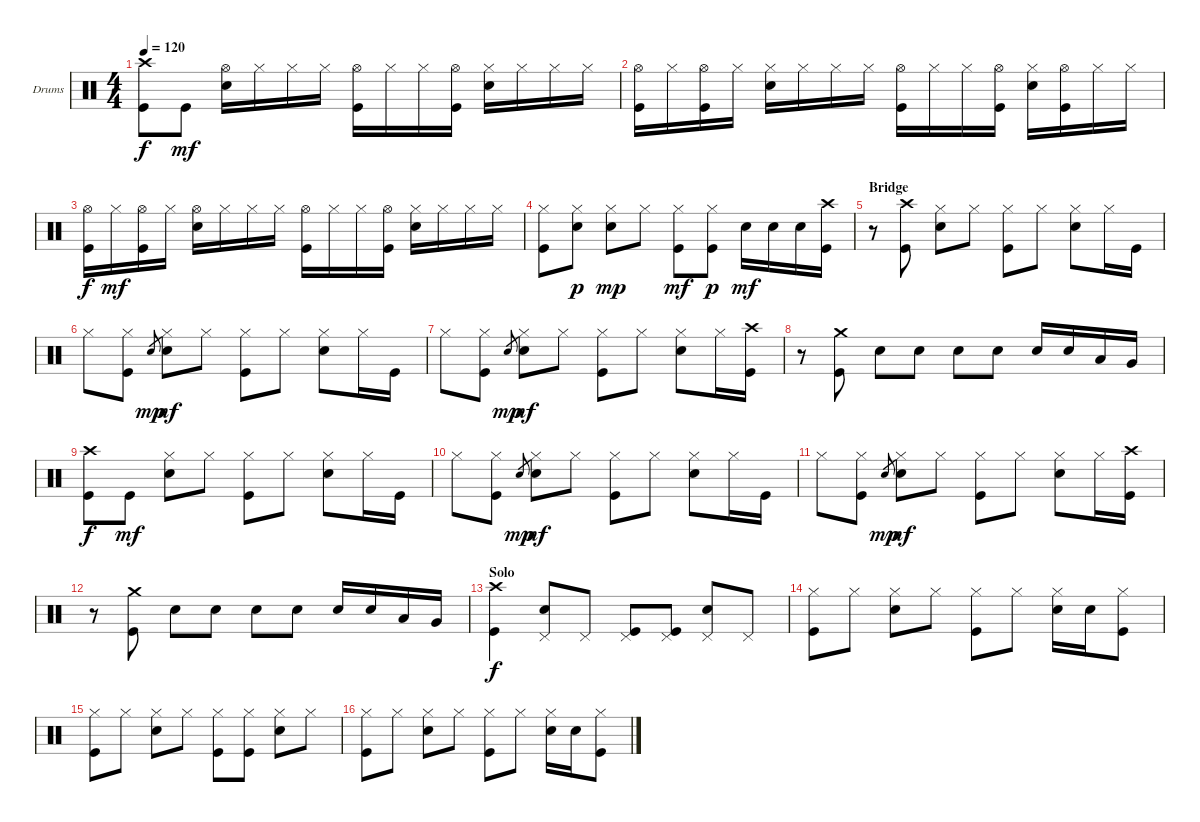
\defaultSystemsLayout 4
\bracketExtendMode groupsimilarinstruments
\firstSystemTrackNameOrientation horizontal
\otherSystemsTrackNameOrientation horizontal
\track ("Drumkit" "Drums") {instrument percussion}
\staff {score}
\articulation defaults
\ts (4 4)
\tempo 120
\clef neutral
\scale
0.333333
\ks c
("Crash high (hit)" "Kick (hit)").8{dy f} "Kick (hit)".8{dy mf} ("Hi-Hat (open)" "Snare (hit) 2").16 "Hi-Hat (closed)".16 "Hi-Hat (closed)".16 "Hi-Hat (closed)".16 ("Hi-Hat (open)" "Kick (hit)").16 "Hi-Hat (closed)".16 "Hi-Hat (closed)".16 ("Hi-Hat (open)" "Kick (hit)").16 ("Hi-Hat (closed)" "Snare (hit) 2").16 "Hi-Hat (closed)".16 "Hi-Hat (closed)".16 "Hi-Hat (closed)".16 |
\scale
0.333333 ("Hi-Hat (open)" "Kick (hit)").16 "Hi-Hat (closed)".16 ("Hi-Hat (open)" "Kick (hit)").16 "Hi-Hat (closed)".16 ("Hi-Hat (closed)" "Snare (hit) 2").16 "Hi-Hat (closed)".16 "Hi-Hat (closed)".16 "Hi-Hat (closed)".16 ("Hi-Hat (open)" "Kick (hit)").16 "Hi-Hat (closed)".16 "Hi-Hat (closed)".16 ("Hi-Hat (open)" "Kick (hit)").16 ("Hi-Hat (closed)" "Snare (hit) 2").16 ("Hi-Hat (open)" "Kick (hit)").16 "Hi-Hat (closed)".16 "Hi-Hat (closed)".16 |
\scale
0.333333 ("Hi-Hat (open)" "Kick (hit)").16{dy f} "Hi-Hat (closed)".16{dy mf} ("Hi-Hat (open)" "Kick (hit)").16 "Hi-Hat (closed)".16 ("Hi-Hat (open)" "Snare (hit) 2").16 "Hi-Hat (closed)".16 "Hi-Hat (closed)".16 "Hi-Hat (closed)".16 ("Hi-Hat (open)" "Kick (hit)").16 "Hi-Hat (closed)".16 "Hi-Hat (closed)".16 ("Hi-Hat (open)" "Kick (hit)").16 ("Hi-Hat (closed)" "Snare (hit) 2").16 "Hi-Hat (closed)".16 "Hi-Hat (closed)".16 "Hi-Hat (closed)".16 |
\scale
0.333333 ("Hi-Hat (closed)" "Kick (hit)").8 ("Hi-Hat (closed)" "Snare (hit) 2").8{dy p} ("Hi-Hat (closed)" "Snare (hit) 2").8{dy mp} "Hi-Hat (closed)".8 ("Hi-Hat (closed)" "Kick (hit)").8{dy mf} ("Hi-Hat (closed)" "Kick (hit)").8{dy p} "Snare (hit) 2".16{dy mf} "Snare (hit) 2".16 "Snare (hit) 2".16 ("Crash high (hit)" "Kick (hit)").16 |
\section ("" "Bridge")
\scale
0.333333 r.8 ("Crash high (hit)" "Kick (hit)").8 ("Hi-Hat (closed)" "Snare (hit) 2").8 "Hi-Hat (closed)".8 ("Hi-Hat (closed)" "Kick (hit)").8 "Hi-Hat (closed)".8 ("Hi-Hat (closed)" "Snare (hit) 2").8 "Hi-Hat (closed)".16 "Kick (hit)".16 |
\scale
0.333333 "Hi-Hat (closed)".8 ("Hi-Hat (closed)" "Kick (hit)").8 "Snare (hit) 2".8{gr dy mp} ("Hi-Hat (closed)" "Snare (hit) 2").8{dy mf} "Hi-Hat (closed)".8 ("Hi-Hat (closed)" "Kick (hit)").8 "Hi-Hat (closed)".8 ("Hi-Hat (closed)" "Snare (hit) 2").8 "Hi-Hat (closed)".16 "Kick (hit)".16 |
\scale
0.333333 "Hi-Hat (closed)".8 ("Hi-Hat (closed)" "Kick (hit)").8 "Snare (hit) 2".8{gr dy mp} ("Hi-Hat (closed)" "Snare (hit) 2").8{dy mf} "Hi-Hat (closed)".8 ("Hi-Hat (closed)" "Kick (hit)").8 "Hi-Hat (closed)".8 ("Hi-Hat (closed)" "Snare (hit) 2").8 "Hi-Hat (closed)".16 ("Crash high (hit)" "Kick (hit)").16 |
\scale
0.333333 r.8 ("Crash medium (hit)" "Kick (hit)").8 "Snare (hit) 2".8 "Snare (hit) 2".8 "Snare (hit) 2".8 "Snare (hit) 2".8 "Snare (hit) 2".16 "Snare (hit) 2".16 "Low Tom (hit)".16 "Very Low Tom (hit)".16 |
\scale
0.333333 ("Crash high (hit)" "Kick (hit)").8{dy f} "Kick (hit)".8{dy mf} ("Hi-Hat (closed)" "Snare (hit) 2").8 "Hi-Hat (closed)".8 ("Hi-Hat (closed)" "Kick (hit)").8 "Hi-Hat (closed)".8 ("Hi-Hat (closed)" "Snare (hit) 2").8 "Hi-Hat (closed)".16 "Kick (hit)".16 |
\scale
0.333333 "Hi-Hat (closed)".8 ("Hi-Hat (closed)" "Kick (hit)").8 "Snare (hit) 2".8{gr dy mp} ("Hi-Hat (closed)" "Snare (hit) 2").8{dy mf} "Hi-Hat (closed)".8 ("Hi-Hat (closed)" "Kick (hit)").8 "Hi-Hat (closed)".8 ("Hi-Hat (closed)" "Snare (hit) 2").8 "Hi-Hat (closed)".16 "Kick (hit)".16 |
\scale
0.333333 "Hi-Hat (closed)".8 ("Hi-Hat (closed)" "Kick (hit)").8 "Snare (hit) 2".8{gr dy mp} ("Hi-Hat (closed)" "Snare (hit) 2").8{dy mf} "Hi-Hat (closed)".8 ("Hi-Hat (closed)" "Kick (hit)").8 "Hi-Hat (closed)".8 ("Hi-Hat (closed)" "Snare (hit) 2").8 "Hi-Hat (closed)".16 ("Crash high (hit)" "Kick (hit)").16 |
\scale
0.333333 r.8 ("Crash medium (hit)" "Kick (hit)").8 "Snare (hit) 2".8 "Snare (hit) 2".8 "Snare (hit) 2".8 "Snare (hit) 2".8 "Snare (hit) 2".16 "Snare (hit) 2".16 "Low Tom (hit)".16 "Very Low Tom (hit)".16 |
\section ("" "Solo")
\scale
0.333333 ("Crash high (hit)" "Kick (hit)").4{dy f} ("Pedal Hi-Hat (hit)" "Snare (hit) 2").8 "Pedal Hi-Hat (hit)".8 ("Pedal Hi-Hat (hit)" "Kick (hit)").8 ("Pedal Hi-Hat (hit)" "Kick (hit)").8 ("Pedal Hi-Hat (hit)" "Snare (hit) 2").8 "Pedal Hi-Hat (hit)".8 |
\scale
0.333333 ("Hi-Hat (closed)" "Kick (hit)").8 "Hi-Hat (closed)".8 ("Hi-Hat (closed)" "Snare (hit) 2").8 "Hi-Hat (closed)".8 ("Hi-Hat (closed)" "Kick (hit)").8 "Hi-Hat (closed)".8 ("Hi-Hat (closed)" "Snare (hit) 2").16 "Snare (hit) 2".16 ("Hi-Hat (closed)" "Kick (hit)").8 |
\scale
0.333333 ("Hi-Hat (closed)" "Kick (hit)").8 "Hi-Hat (closed)".8 ("Hi-Hat (closed)" "Snare (hit) 2").8 "Hi-Hat (closed)".8 ("Hi-Hat (closed)" "Kick (hit)").8 ("Hi-Hat (closed)" "Kick (hit)").8 ("Hi-Hat (closed)" "Snare (hit) 2").8 "Hi-Hat (closed)".8 |
\scale
0.333333 ("Hi-Hat (closed)" "Kick (hit)").8 "Hi-Hat (closed)".8 ("Hi-Hat (closed)" "Snare (hit) 2").8 "Hi-Hat (closed)".8 ("Hi-Hat (closed)" "Kick (hit)").8 "Hi-Hat (closed)".8 ("Hi-Hat (closed)" "Snare (hit) 2").16 "Snare (hit) 2".16 ("Hi-Hat (closed)" "Kick (hit)").8
